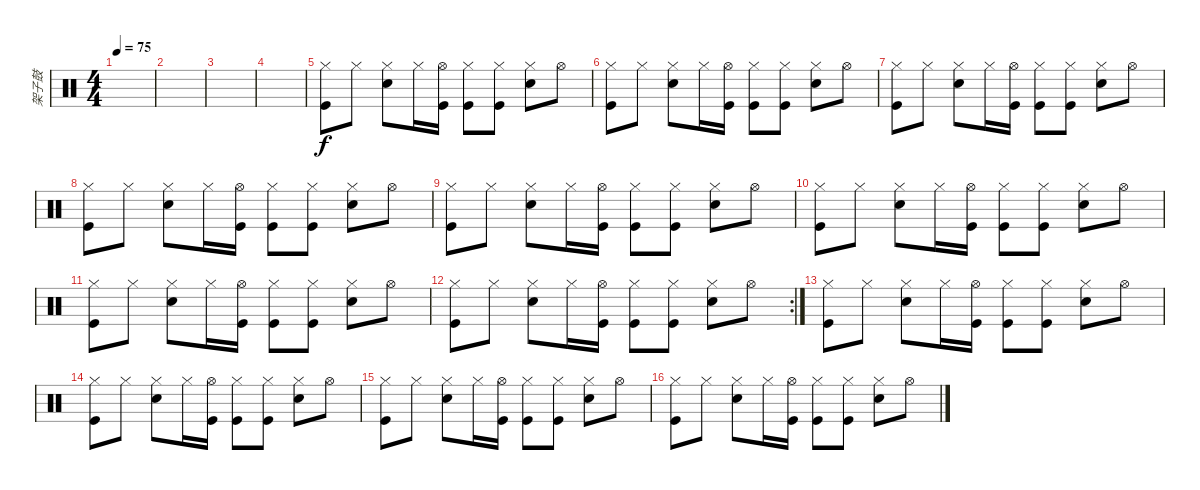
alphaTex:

\track ("架子鼓" "架子鼓") {instrument percussion}
\staff {score}
\articulation defaults
\ts (4 4)
\tempo 75
\clef neutral
\ks c
|
|
|
|
("Hi-Hat (closed)" "Kick (hit)").8 "Hi-Hat (closed)".8 ("Hi-Hat (closed)" "Snare (hit) 2").8 "Hi-Hat (closed)".16 ("Hi-Hat (open)" "Kick (hit)").16 ("Hi-Hat (closed)" "Kick (hit)").8 ("Hi-Hat (closed)" "Kick (hit)").8 ("Hi-Hat (closed)" "Snare (hit) 2").8 "Hi-Hat (open)".8 |
("Hi-Hat (closed)" "Kick (hit)").8 "Hi-Hat (closed)".8 ("Hi-Hat (closed)" "Snare (hit) 2").8 "Hi-Hat (closed)".16 ("Hi-Hat (open)" "Kick (hit)").16 ("Hi-Hat (closed)" "Kick (hit)").8 ("Hi-Hat (closed)" "Kick (hit)").8 ("Hi-Hat (closed)" "Snare (hit) 2").8 "Hi-Hat (open)".8 |
("Hi-Hat (closed)" "Kick (hit)").8 "Hi-Hat (closed)".8 ("Hi-Hat (closed)" "Snare (hit) 2").8 "Hi-Hat (closed)".16 ("Hi-Hat (open)" "Kick (hit)").16 ("Hi-Hat (closed)" "Kick (hit)").8 ("Hi-Hat (closed)" "Kick (hit)").8 ("Hi-Hat (closed)" "Snare (hit) 2").8 "Hi-Hat (open)".8 |
("Hi-Hat (closed)" "Kick (hit)").8 "Hi-Hat (closed)".8 ("Hi-Hat (closed)" "Snare (hit) 2").8 "Hi-Hat (closed)".16 ("Hi-Hat (open)" "Kick (hit)").16 ("Hi-Hat (closed)" "Kick (hit)").8 ("Hi-Hat (closed)" "Kick (hit)").8 ("Hi-Hat (closed)" "Snare (hit) 2").8 "Hi-Hat (open)".8 |
("Hi-Hat (closed)" "Kick (hit)").8 "Hi-Hat (closed)".8 ("Hi-Hat (closed)" "Snare (hit) 2").8 "Hi-Hat (closed)".16 ("Hi-Hat (open)" "Kick (hit)").16 ("Hi-Hat (closed)" "Kick (hit)").8 ("Hi-Hat (closed)" "Kick (hit)").8 ("Hi-Hat (closed)" "Snare (hit) 2").8 "Hi-Hat (open)".8 |
("Hi-Hat (closed)" "Kick (hit)").8 "Hi-Hat (closed)".8 ("Hi-Hat (closed)" "Snare (hit) 2").8 "Hi-Hat (closed)".16 ("Hi-Hat (open)" "Kick (hit)").16 ("Hi-Hat (closed)" "Kick (hit)").8 ("Hi-Hat (closed)" "Kick (hit)").8 ("Hi-Hat (closed)" "Snare (hit) 2").8 "Hi-Hat (open)".8 |
("Hi-Hat (closed)" "Kick (hit)").8 "Hi-Hat (closed)".8 ("Hi-Hat (closed)" "Snare (hit) 2").8 "Hi-Hat (closed)".16 ("Hi-Hat (open)" "Kick (hit)").16 ("Hi-Hat (closed)" "Kick (hit)").8 ("Hi-Hat (closed)" "Kick (hit)").8 ("Hi-Hat (closed)" "Snare (hit) 2").8 "Hi-Hat (open)".8 |
\rc 2
("Hi-Hat (closed)" "Kick (hit)").8 "Hi-Hat (closed)".8 ("Hi-Hat (closed)" "Snare (hit) 2").8 "Hi-Hat (closed)".16 ("Hi-Hat (open)" "Kick (hit)").16 ("Hi-Hat (closed)" "Kick (hit)").8 ("Hi-Hat (closed)" "Kick (hit)").8 ("Hi-Hat (closed)" "Snare (hit) 2").8 "Hi-Hat (open)".8 |
("Hi-Hat (closed)" "Kick (hit)").8 "Hi-Hat (closed)".8 ("Hi-Hat (closed)" "Snare (hit) 2").8 "Hi-Hat (closed)".16 ("Hi-Hat (open)" "Kick (hit)").16 ("Hi-Hat (closed)" "Kick (hit)").8 ("Hi-Hat (closed)" "Kick (hit)").8 ("Hi-Hat (closed)" "Snare (hit) 2").8 "Hi-Hat (open)".8 |
("Hi-Hat (closed)" "Kick (hit)").8 "Hi-Hat (closed)".8 ("Hi-Hat (closed)" "Snare (hit) 2").8 "Hi-Hat (closed)".16 ("Hi-Hat (open)" "Kick (hit)").16 ("Hi-Hat (closed)" "Kick (hit)").8 ("Hi-Hat (closed)" "Kick (hit)").8 ("Hi-Hat (closed)" "Snare (hit) 2").8 "Hi-Hat (open)".8 |
("Hi-Hat (closed)" "Kick (hit)").8 "Hi-Hat (closed)".8 ("Hi-Hat (closed)" "Snare (hit) 2").8 "Hi-Hat (closed)".16 ("Hi-Hat (open)" "Kick (hit)").16 ("Hi-Hat (closed)" "Kick (hit)").8 ("Hi-Hat (closed)" "Kick (hit)").8 ("Hi-Hat (closed)" "Snare (hit) 2").8 "Hi-Hat (open)".8 |
("Hi-Hat (closed)" "Kick (hit)").8 "Hi-Hat (closed)".8 ("Hi-Hat (closed)" "Snare (hit) 2").8 "Hi-Hat (closed)".16 ("Hi-Hat (open)" "Kick (hit)").16 ("Hi-Hat (closed)" "Kick (hit)").8 ("Hi-Hat (closed)" "Kick (hit)").8 ("Hi-Hat (closed)" "Snare (hit) 2").8 "Hi-Hat (open)".8
